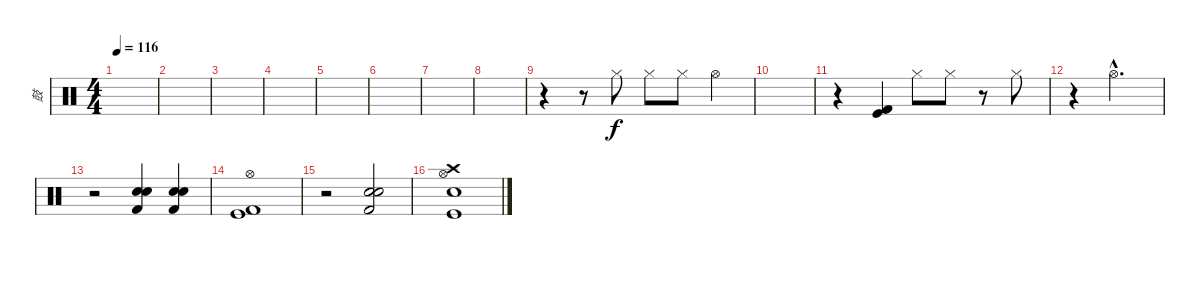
\track ("鼓" "鼓") {instrument percussion}
\staff {score}
\articulation defaults
\ts (4 4)
\tempo 116
\clef neutral
\ks c
|
|
|
|
|
|
|
|
r.4 r.8 "Hi-Hat (closed)".8 "Hi-Hat (closed)".8 "Hi-Hat (closed)".8 "Hi-Hat (open)".4 |
|
r.4 ("Kick (hit) 2" "Kick (hit)").4 "Hi-Hat (closed)".8 "Hi-Hat (closed)".8 r.8 "Hi-Hat (closed)".8 |
r.4 "Hi-Hat (open)"{hac}.2{d} |
r.2 ("Kick (hit) 2" "Electric Snare (hit)" "Snare (hit) 2").4 ("Kick (hit) 2" "Electric Snare (hit)" "Snare (hit) 2").4 |
("Kick (hit)" "Kick (hit) 2" "Hi-Hat (open)").1 |
r.2 ("Kick (hit) 2" "Electric Snare (hit)" "Snare (hit) 2").2 |
("Crash high (hit)" "Hi-Hat (open)" "Kick (hit)" "Electric Snare (hit)").1
